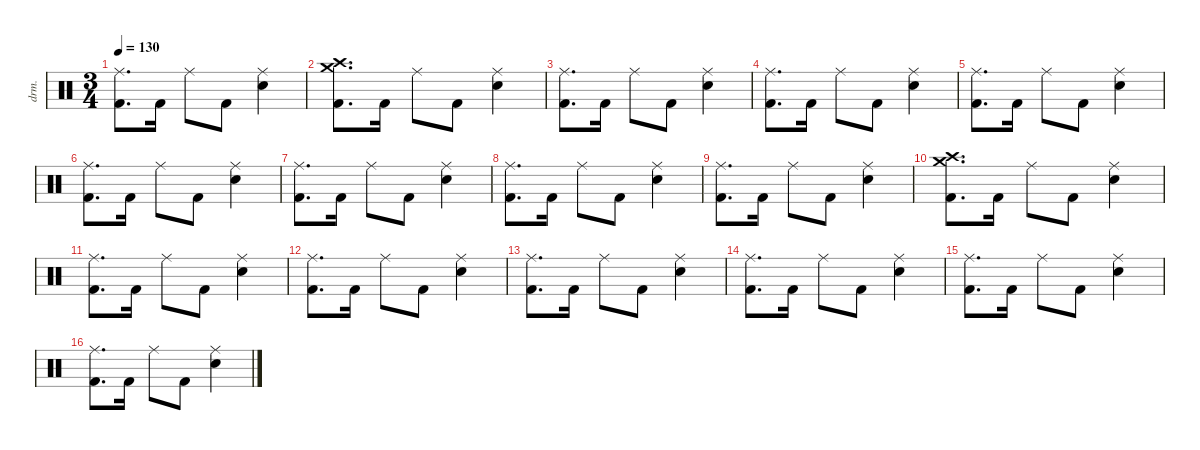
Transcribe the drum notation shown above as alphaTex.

\defaultSystemsLayout 4
\hideDynamics
\bracketExtendMode nobrackets
\otherSystemsTrackNameOrientation horizontal
\track ("Percussion" "drm.") {instrument percussion}
\staff {score}
\articulation defaults
\ts (3 4)
\tempo 130
\clef neutral
\ks c
("Ride (middle)" "Kick (hit) 2").8{d dy f beam Down} "Kick (hit) 2".16{beam Down} "Ride (middle)".8{beam Down} "Kick (hit) 2".8{beam Down} ("Ride (middle)" "Snare (hit) 2").4{beam Down} |
("Crash medium (hit)" "Crash high (hit)" "Kick (hit) 2").8{d beam Down} "Kick (hit) 2".16{beam Down} "Ride (middle)".8{beam Down} "Kick (hit) 2".8{beam Down} ("Ride (middle)" "Snare (hit) 2").4{beam Down} |
("Ride (middle)" "Kick (hit) 2").8{d beam Down} "Kick (hit) 2".16{beam Down} "Ride (middle)".8{beam Down} "Kick (hit) 2".8{beam Down} ("Ride (middle)" "Snare (hit) 2").4{beam Down} |
("Ride (middle)" "Kick (hit) 2").8{d beam Down} "Kick (hit) 2".16{beam Down} "Ride (middle)".8{beam Down} "Kick (hit) 2".8{beam Down} ("Ride (middle)" "Snare (hit) 2").4{beam Down} |
("Ride (middle)" "Kick (hit) 2").8{d beam Down} "Kick (hit) 2".16{beam Down} "Ride (middle)".8{beam Down} "Kick (hit) 2".8{beam Down} ("Ride (middle)" "Snare (hit) 2").4{beam Down} |
("Ride (middle)" "Kick (hit) 2").8{d beam Down} "Kick (hit) 2".16{beam Down} "Ride (middle)".8{beam Down} "Kick (hit) 2".8{beam Down} ("Ride (middle)" "Snare (hit) 2").4{beam Down} |
("Ride (middle)" "Kick (hit) 2").8{d beam Down} "Kick (hit) 2".16{beam Down} "Ride (middle)".8{beam Down} "Kick (hit) 2".8{beam Down} ("Ride (middle)" "Snare (hit) 2").4{beam Down} |
("Ride (middle)" "Kick (hit) 2").8{d beam Down} "Kick (hit) 2".16{beam Down} "Ride (middle)".8{beam Down} "Kick (hit) 2".8{beam Down} ("Ride (middle)" "Snare (hit) 2").4{beam Down} |
("Ride (middle)" "Kick (hit) 2").8{d beam Down} "Kick (hit) 2".16{beam Down} "Ride (middle)".8{beam Down} "Kick (hit) 2".8{beam Down} ("Ride (middle)" "Snare (hit) 2").4{beam Down} |
("Crash medium (hit)" "Crash high (hit)" "Kick (hit) 2").8{d beam Down} "Kick (hit) 2".16{beam Down} "Ride (middle)".8{beam Down} "Kick (hit) 2".8{beam Down} ("Ride (middle)" "Snare (hit) 2").4{beam Down} |
("Ride (middle)" "Kick (hit) 2").8{d beam Down} "Kick (hit) 2".16{beam Down} "Ride (middle)".8{beam Down} "Kick (hit) 2".8{beam Down} ("Ride (middle)" "Snare (hit) 2").4{beam Down} |
("Ride (middle)" "Kick (hit) 2").8{d beam Down} "Kick (hit) 2".16{beam Down} "Ride (middle)".8{beam Down} "Kick (hit) 2".8{beam Down} ("Ride (middle)" "Snare (hit) 2").4{beam Down} |
("Ride (middle)" "Kick (hit) 2").8{d beam Down} "Kick (hit) 2".16{beam Down} "Ride (middle)".8{beam Down} "Kick (hit) 2".8{beam Down} ("Ride (middle)" "Snare (hit) 2").4{beam Down} |
("Ride (middle)" "Kick (hit) 2").8{d beam Down} "Kick (hit) 2".16{beam Down} "Ride (middle)".8{beam Down} "Kick (hit) 2".8{beam Down} ("Ride (middle)" "Snare (hit) 2").4{beam Down} |
("Ride (middle)" "Kick (hit) 2").8{d beam Down} "Kick (hit) 2".16{beam Down} "Ride (middle)".8{beam Down} "Kick (hit) 2".8{beam Down} ("Ride (middle)" "Snare (hit) 2").4{beam Down} |
("Ride (middle)" "Kick (hit) 2").8{d beam Down} "Kick (hit) 2".16{beam Down} "Ride (middle)".8{beam Down} "Kick (hit) 2".8{beam Down} ("Ride (middle)" "Snare (hit) 2").4{beam Down}
